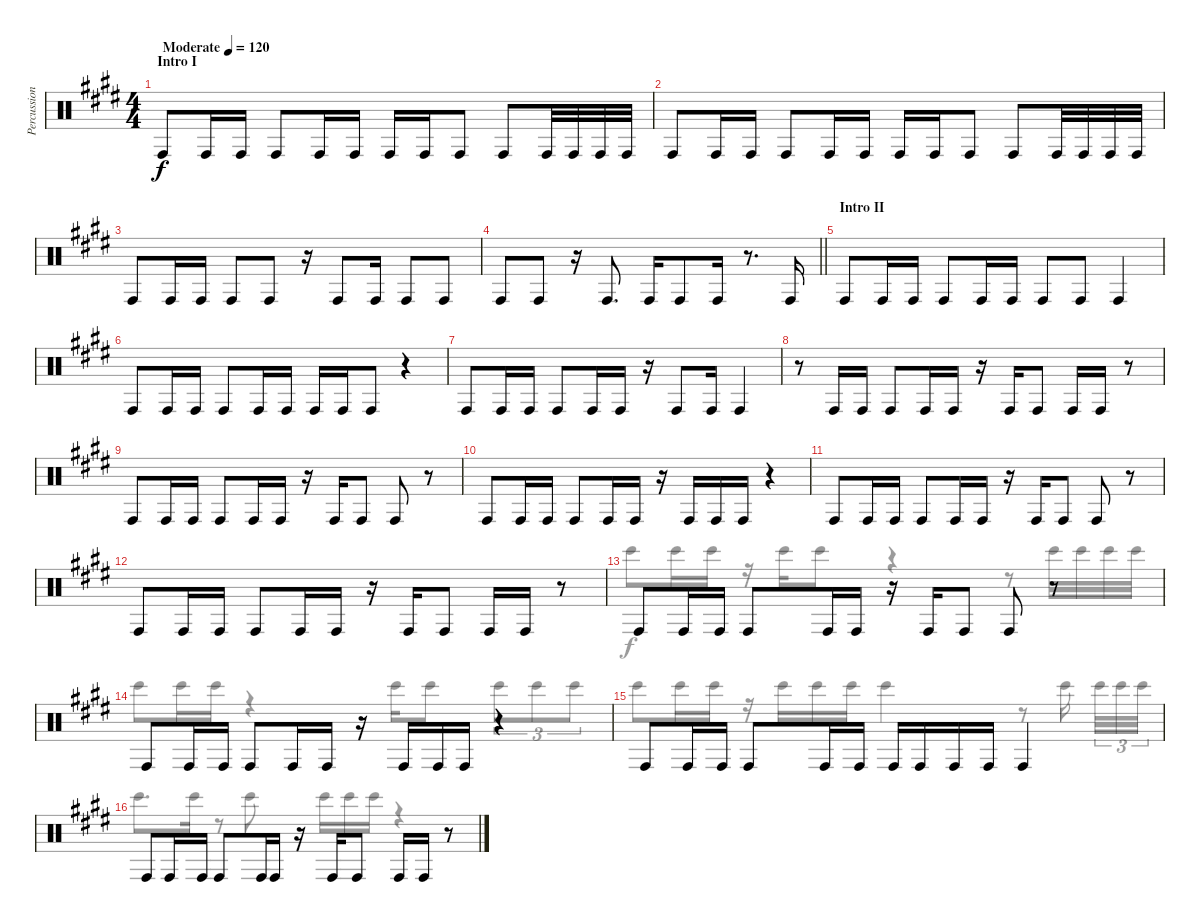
\track ("Percussion IV" "Percussion") {instrument percussion}
\staff {score}
\articulation defaults
\voice
\ts (4 4)
\section ("" "Intro I")
\tempo (120 "Moderate")
\clef neutral
\ks e "Conga high (hit)".8{dy f} "Conga high (hit)".16 "Conga high (hit)".16 "Conga high (hit)".8 "Conga high (hit)".16 "Conga high (hit)".16 "Conga high (hit)".16 "Conga high (hit)".16 "Conga high (hit)".8 "Conga high (hit)".8 "Conga high (hit)".32 "Conga high (hit)".32 "Conga high (hit)".32 "Conga high (hit)".32
|
"Conga high (hit)".8 "Conga high (hit)".16 "Conga high (hit)".16 "Conga high (hit)".8 "Conga high (hit)".16 "Conga high (hit)".16 "Conga high (hit)".16 "Conga high (hit)".16 "Conga high (hit)".8 "Conga high (hit)".8 "Conga high (hit)".32 "Conga high (hit)".32 "Conga high (hit)".32 "Conga high (hit)".32 |
"Conga high (hit)".8 "Conga high (hit)".16 "Conga high (hit)".16 "Conga high (hit)".8 "Conga high (hit)".8 r.16 "Conga high (hit)".8 "Conga high (hit)".16 "Conga high (hit)".8 "Conga high (hit)".8 |
\barLineRight lightlight "Conga high (hit)".8 "Conga high (hit)".8
r.16 "Conga high (hit)".8{d} "Conga high (hit)".16 "Conga high (hit)".8 "Conga high (hit)".16 r.8{d} "Conga high (hit)".16 |
\section ("" "Intro II")
"Conga high (hit)".8 "Conga high (hit)".16 "Conga high (hit)".16 "Conga high (hit)".8 "Conga high (hit)".16 "Conga high (hit)".16 "Conga high (hit)".8 "Conga high (hit)".8 "Conga high (hit)".4 |
"Conga high (hit)".8 "Conga high (hit)".16 "Conga high (hit)".16 "Conga high (hit)".8 "Conga high (hit)".16 "Conga high (hit)".16 "Conga high (hit)".16 "Conga high (hit)".16 "Conga high (hit)".8 r.4 |
"Conga high (hit)".8 "Conga high (hit)".16 "Conga high (hit)".16 "Conga high (hit)".8 "Conga high (hit)".16 "Conga high (hit)".16 r.16 "Conga high (hit)".8 "Conga high (hit)".16 "Conga high (hit)".4 |
r.8 "Conga high (hit)".16 "Conga high (hit)".16 "Conga high (hit)".8 "Conga high (hit)".16 "Conga high (hit)".16 r.16 "Conga high (hit)".16 "Conga high (hit)".8 "Conga high (hit)".16 "Conga high (hit)".16 r.8 |
"Conga high (hit)".8 "Conga high (hit)".16 "Conga high (hit)".16 "Conga high (hit)".8 "Conga high (hit)".16 "Conga high (hit)".16 r.16 "Conga high (hit)".16 "Conga high (hit)".8 "Conga high (hit)".8 r.8 |
"Conga high (hit)".8 "Conga high (hit)".16 "Conga high (hit)".16 "Conga high (hit)".8 "Conga high (hit)".16 "Conga high (hit)".16 r.16 "Conga high (hit)".16 "Conga high (hit)".16 "Conga high (hit)".16 r.4 |
"Conga high (hit)".8 "Conga high (hit)".16 "Conga high (hit)".16 "Conga high (hit)".8 "Conga high (hit)".16 "Conga high (hit)".16 r.16 "Conga high (hit)".16 "Conga high (hit)".8 "Conga high (hit)".8 r.8 |
"Conga high (hit)".8 "Conga high (hit)".16 "Conga high (hit)".16 "Conga high (hit)".8 "Conga high (hit)".16 "Conga high (hit)".16 r.16 "Conga high (hit)".16 "Conga high (hit)".8 "Conga high (hit)".16 "Conga high (hit)".16 r.8 |
"Conga high (hit)".8 "Conga high (hit)".16 "Conga high (hit)".16 "Conga high (hit)".8 "Conga high (hit)".16 "Conga high (hit)".16 r.16 "Conga high (hit)".16 "Conga high (hit)".8 "Conga high (hit)".8 r.8 |
"Conga high (hit)".8 "Conga high (hit)".16 "Conga high (hit)".16 "Conga high (hit)".8 "Conga high (hit)".16 "Conga high (hit)".16 r.16 "Conga high (hit)".16 "Conga high (hit)".16 "Conga high (hit)".16 r.4 |
"Conga high (hit)".8 "Conga high (hit)".16 "Conga high (hit)".16 "Conga high (hit)".8 "Conga high (hit)".16 "Conga high (hit)".16 "Conga high (hit)".16 "Conga high (hit)".16 "Conga high (hit)".16 "Conga high (hit)".16 "Conga high (hit)".4 |
"Conga high (hit)".8 "Conga high (hit)".16 "Conga high (hit)".16 "Conga high (hit)".8 "Conga high (hit)".16 "Conga high (hit)".16 r.16 "Conga high (hit)".16 "Conga high (hit)".8 "Conga high (hit)".16 "Conga high (hit)".16 r.8
\voice
\clef neutral
\ottava regular
\simile none
\ks e
|
|
|
\barLineRight lightlight
|
|
|
|
|
|
|
|
|
"Bongo High (hit)".8 "Bongo High (hit)".16 "Bongo High (hit)".16 r.16 "Bongo High (hit)".16 "Bongo High (hit)".8 r.4 r.8 "Bongo High (hit)".32 "Bongo High (hit)".32 "Bongo High (hit)".32 "Bongo High (hit)".32 |
"Bongo High (hit)".8 "Bongo High (hit)".16 "Bongo High (hit)".16 r.4 r.16 "Bongo High (hit)".16 "Bongo High (hit)".8 "Bongo High (hit)".8{tu (3 2)} "Bongo High (hit)".8{tu (3 2)} "Bongo High (hit)".8{tu (3 2)} |
"Bongo High (hit)".8 "Bongo High (hit)".16 "Bongo High (hit)".16 r.16 "Bongo High (hit)".16 "Bongo High (hit)".16 "Bongo High (hit)".16 "Bongo High (hit)".4 r.8 "Bongo High (hit)".16{beam splitsecondary} "Bongo High (hit)".32{tu (3 2)} "Bongo High (hit)".32{tu (3 2)} "Bongo High (hit)".32{tu (3 2)} |
"Bongo High (hit)".8{d} "Bongo High (hit)".16 r.8 "Bongo High (hit)".8 r.16 "Bongo High (hit)".16 "Bongo High (hit)".16 "Bongo High (hit)".16 r.4
